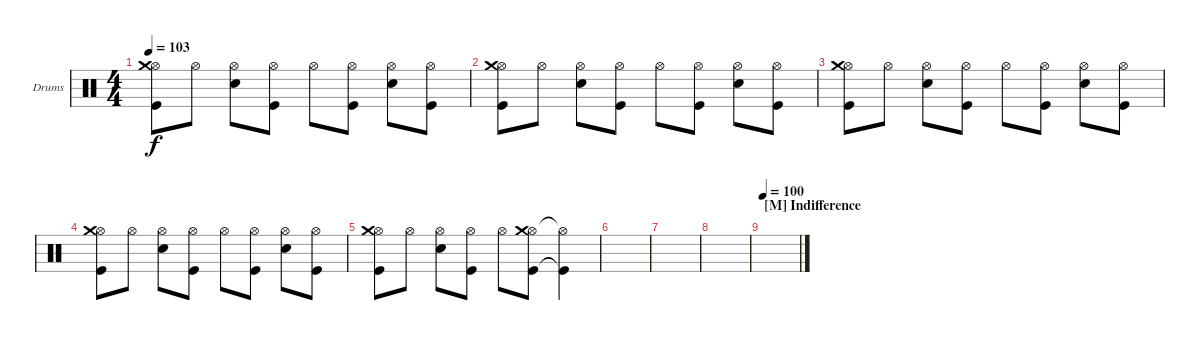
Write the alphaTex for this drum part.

\defaultSystemsLayout 4
\bracketExtendMode nobrackets
\firstSystemTrackNameOrientation horizontal
\otherSystemsTrackNameOrientation horizontal
\track ("Dave Abbruzzese" "Drums") {solo instrument percussion}
\staff {score}
\articulation defaults
\ts (4 4)
\tempo 103
\clef neutral
\ks c
("Kick (hit)" "Hi-Hat (open)" "Crash medium (hit)").8{dy f} "Hi-Hat (open)".8 ("Snare (hit) 2" "Hi-Hat (open)").8 ("Kick (hit)" "Hi-Hat (open)").8 "Hi-Hat (open)".8 ("Kick (hit)" "Hi-Hat (open)").8 ("Snare (hit) 2" "Hi-Hat (open)").8 ("Kick (hit)" "Hi-Hat (open)").8 |
("Kick (hit)" "Hi-Hat (open)" "Crash medium (hit)").8 "Hi-Hat (open)".8 ("Snare (hit) 2" "Hi-Hat (open)").8 ("Kick (hit)" "Hi-Hat (open)").8 "Hi-Hat (open)".8 ("Kick (hit)" "Hi-Hat (open)").8 ("Snare (hit) 2" "Hi-Hat (open)").8 ("Kick (hit)" "Hi-Hat (open)").8 |
("Kick (hit)" "Hi-Hat (open)" "Crash medium (hit)").8 "Hi-Hat (open)".8 ("Snare (hit) 2" "Hi-Hat (open)").8 ("Kick (hit)" "Hi-Hat (open)").8 "Hi-Hat (open)".8 ("Kick (hit)" "Hi-Hat (open)").8 ("Snare (hit) 2" "Hi-Hat (open)").8 ("Kick (hit)" "Hi-Hat (open)").8 |
("Kick (hit)" "Hi-Hat (open)" "Crash medium (hit)").8 "Hi-Hat (open)".8 ("Snare (hit) 2" "Hi-Hat (open)").8 ("Kick (hit)" "Hi-Hat (open)").8 "Hi-Hat (open)".8 ("Kick (hit)" "Hi-Hat (open)").8 ("Snare (hit) 2" "Hi-Hat (open)").8 ("Kick (hit)" "Hi-Hat (open)").8 |
("Kick (hit)" "Hi-Hat (open)" "Crash medium (hit)").8 "Hi-Hat (open)".8 ("Snare (hit) 2" "Hi-Hat (open)").8 ("Kick (hit)" "Hi-Hat (open)").8 "Hi-Hat (open)".8 ("Kick (hit)" "Hi-Hat (open)" "Crash medium (hit)").8 ("Kick (hit)"{t} "Hi-Hat (open)"{t}).4 |
|
|
|
\section ("M" "Indifference")
\tempo 100
